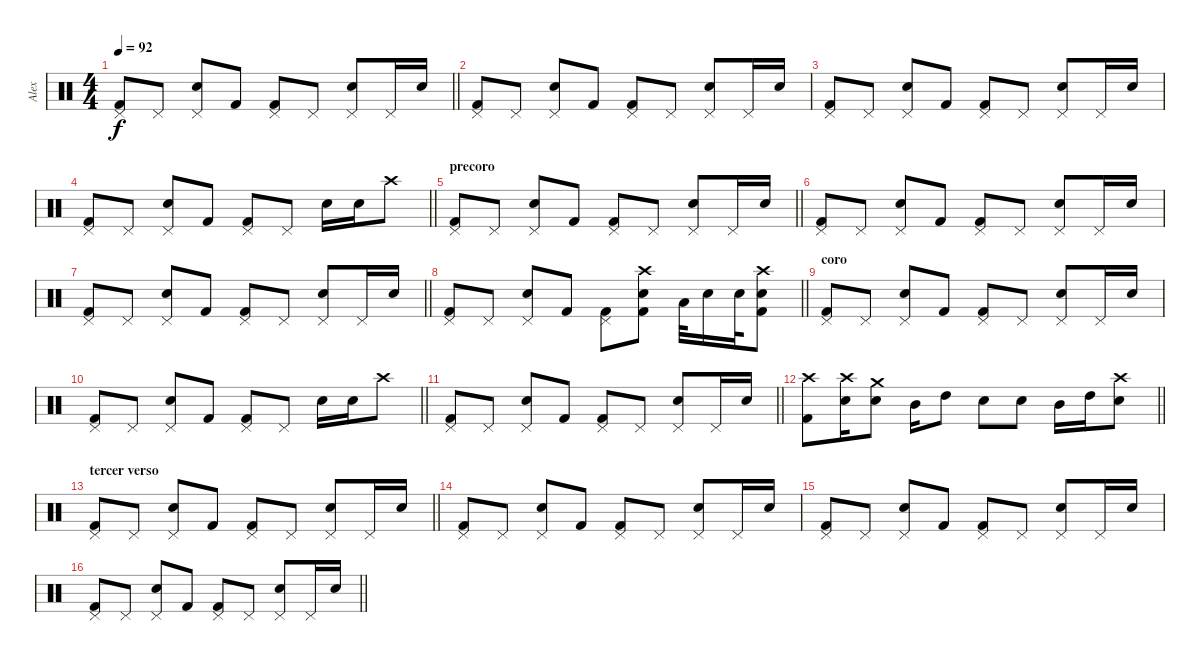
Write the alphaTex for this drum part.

\track ("Alex" "Alex") {instrument percussion}
\staff {score}
\articulation defaults
\ts (4 4)
\tempo 92
\clef neutral
\barLineRight lightlight
\ks c
("Pedal Hi-Hat (hit)" "Kick (hit) 2").8{dy f} "Pedal Hi-Hat (hit)".8 ("Pedal Hi-Hat (hit)" "Snare (hit) 2").8 "Kick (hit) 2".8 ("Pedal Hi-Hat (hit)" "Kick (hit) 2").8 "Pedal Hi-Hat (hit)".8 ("Pedal Hi-Hat (hit)" "Snare (hit) 2").8 "Pedal Hi-Hat (hit)".16 "Snare (hit) 2".16 |
("Pedal Hi-Hat (hit)" "Kick (hit) 2").8 "Pedal Hi-Hat (hit)".8 ("Pedal Hi-Hat (hit)" "Snare (hit) 2").8 "Kick (hit) 2".8 ("Pedal Hi-Hat (hit)" "Kick (hit) 2").8 "Pedal Hi-Hat (hit)".8 ("Pedal Hi-Hat (hit)" "Snare (hit) 2").8 "Pedal Hi-Hat (hit)".16 "Snare (hit) 2".16 |
("Pedal Hi-Hat (hit)" "Kick (hit) 2").8 "Pedal Hi-Hat (hit)".8 ("Pedal Hi-Hat (hit)" "Snare (hit) 2").8 "Kick (hit) 2".8 ("Pedal Hi-Hat (hit)" "Kick (hit) 2").8 "Pedal Hi-Hat (hit)".8 ("Pedal Hi-Hat (hit)" "Snare (hit) 2").8 "Pedal Hi-Hat (hit)".16 "Snare (hit) 2".16 |
\barLineRight lightlight
("Pedal Hi-Hat (hit)" "Kick (hit) 2").8 "Pedal Hi-Hat (hit)".8 ("Pedal Hi-Hat (hit)" "Snare (hit) 2").8 "Kick (hit) 2".8 ("Pedal Hi-Hat (hit)" "Kick (hit) 2").8 "Pedal Hi-Hat (hit)".8 "Snare (hit) 2".16 "Snare (hit) 2".16 "Crash high (hit)".8 |
\section ("" "precoro")
\barLineRight lightlight
("Pedal Hi-Hat (hit)" "Kick (hit) 2").8 "Pedal Hi-Hat (hit)".8 ("Pedal Hi-Hat (hit)" "Snare (hit) 2").8 "Kick (hit) 2".8 ("Pedal Hi-Hat (hit)" "Kick (hit) 2").8 "Pedal Hi-Hat (hit)".8 ("Pedal Hi-Hat (hit)" "Snare (hit) 2").8 "Pedal Hi-Hat (hit)".16 "Snare (hit) 2".16 |
("Pedal Hi-Hat (hit)" "Kick (hit) 2").8 "Pedal Hi-Hat (hit)".8 ("Pedal Hi-Hat (hit)" "Snare (hit) 2").8 "Kick (hit) 2".8 ("Pedal Hi-Hat (hit)" "Kick (hit) 2").8 "Pedal Hi-Hat (hit)".8 ("Pedal Hi-Hat (hit)" "Snare (hit) 2").8 "Pedal Hi-Hat (hit)".16 "Snare (hit) 2".16 |
\barLineRight lightlight
("Pedal Hi-Hat (hit)" "Kick (hit) 2").8 "Pedal Hi-Hat (hit)".8 ("Pedal Hi-Hat (hit)" "Snare (hit) 2").8 "Kick (hit) 2".8 ("Pedal Hi-Hat (hit)" "Kick (hit) 2").8 "Pedal Hi-Hat (hit)".8 ("Pedal Hi-Hat (hit)" "Snare (hit) 2").8 "Pedal Hi-Hat (hit)".16 "Snare (hit) 2".16 |
\barLineRight lightlight
("Pedal Hi-Hat (hit)" "Kick (hit) 2").8 "Pedal Hi-Hat (hit)".8 ("Pedal Hi-Hat (hit)" "Snare (hit) 2").8 "Kick (hit) 2".8 ("Kick (hit) 2" "Pedal Hi-Hat (hit)").8 ("Crash high (hit)" "Snare (hit) 2" "Kick (hit) 2").8 "Low Tom (hit)".32 "Snare (hit) 2".16 "Snare (hit) 2".32 ("Crash high (hit)" "Kick (hit) 2" "Snare (hit) 2").8 |
\section ("" "coro")
("Pedal Hi-Hat (hit)" "Kick (hit) 2").8 "Pedal Hi-Hat (hit)".8 ("Pedal Hi-Hat (hit)" "Snare (hit) 2").8 "Kick (hit) 2".8 ("Pedal Hi-Hat (hit)" "Kick (hit) 2").8 "Pedal Hi-Hat (hit)".8 ("Pedal Hi-Hat (hit)" "Snare (hit) 2").8 "Pedal Hi-Hat (hit)".16 "Snare (hit) 2".16 |
\barLineRight lightlight
("Pedal Hi-Hat (hit)" "Kick (hit) 2").8 "Pedal Hi-Hat (hit)".8 ("Pedal Hi-Hat (hit)" "Snare (hit) 2").8 "Kick (hit) 2".8 ("Pedal Hi-Hat (hit)" "Kick (hit) 2").8 "Pedal Hi-Hat (hit)".8 "Snare (hit) 2".16 "Snare (hit) 2".16 "Crash high (hit)".8 |
\barLineRight lightlight
("Pedal Hi-Hat (hit)" "Kick (hit) 2").8 "Pedal Hi-Hat (hit)".8 ("Pedal Hi-Hat (hit)" "Snare (hit) 2").8 "Kick (hit) 2".8 ("Pedal Hi-Hat (hit)" "Kick (hit) 2").8 "Pedal Hi-Hat (hit)".8 ("Pedal Hi-Hat (hit)" "Snare (hit) 2").8 "Pedal Hi-Hat (hit)".16 "Snare (hit) 2".16 |
\barLineRight lightlight
("Crash high (hit)" "Kick (hit) 2").8 ("Crash high (hit)" "Snare (hit) 2").16 ("Crash medium (hit)" "Snare (hit) 2").8 "Mid Tom (hit)".16 "High Tom (hit)".8 "Snare (hit) 2".8 "Snare (hit) 2".8 "Mid Tom (hit)".16 "High Tom (hit)".16 ("Crash high (hit)" "Snare (hit) 2").8 |
\section ("" "tercer verso")
\barLineRight lightlight
("Pedal Hi-Hat (hit)" "Kick (hit) 2").8 "Pedal Hi-Hat (hit)".8 ("Pedal Hi-Hat (hit)" "Snare (hit) 2").8 "Kick (hit) 2".8 ("Pedal Hi-Hat (hit)" "Kick (hit) 2").8 "Pedal Hi-Hat (hit)".8 ("Pedal Hi-Hat (hit)" "Snare (hit) 2").8 "Pedal Hi-Hat (hit)".16 "Snare (hit) 2".16 |
("Pedal Hi-Hat (hit)" "Kick (hit) 2").8 "Pedal Hi-Hat (hit)".8 ("Pedal Hi-Hat (hit)" "Snare (hit) 2").8 "Kick (hit) 2".8 ("Pedal Hi-Hat (hit)" "Kick (hit) 2").8 "Pedal Hi-Hat (hit)".8 ("Pedal Hi-Hat (hit)" "Snare (hit) 2").8 "Pedal Hi-Hat (hit)".16 "Snare (hit) 2".16 |
("Pedal Hi-Hat (hit)" "Kick (hit) 2").8 "Pedal Hi-Hat (hit)".8 ("Pedal Hi-Hat (hit)" "Snare (hit) 2").8 "Kick (hit) 2".8 ("Pedal Hi-Hat (hit)" "Kick (hit) 2").8 "Pedal Hi-Hat (hit)".8 ("Pedal Hi-Hat (hit)" "Snare (hit) 2").8 "Pedal Hi-Hat (hit)".16 "Snare (hit) 2".16 |
\barLineRight lightlight
("Pedal Hi-Hat (hit)" "Kick (hit) 2").8 "Pedal Hi-Hat (hit)".8 ("Pedal Hi-Hat (hit)" "Snare (hit) 2").8 "Kick (hit) 2".8 ("Pedal Hi-Hat (hit)" "Kick (hit) 2").8 "Pedal Hi-Hat (hit)".8 ("Pedal Hi-Hat (hit)" "Snare (hit) 2").8 "Pedal Hi-Hat (hit)".16 "Snare (hit) 2".16
